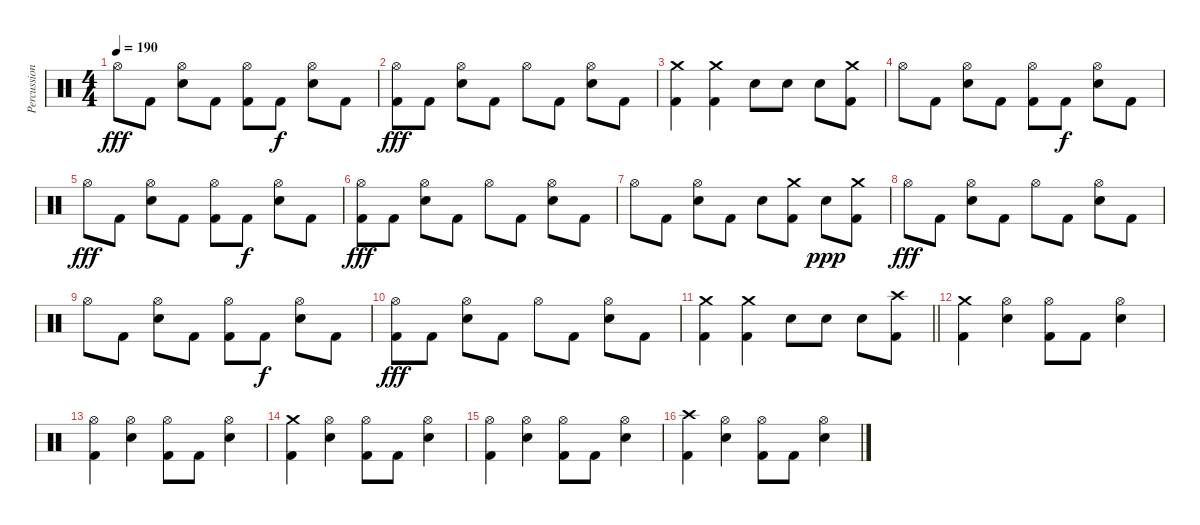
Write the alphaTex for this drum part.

\track ("Percussion" "Percussion") {instrument percussion}
\staff {score}
\articulation defaults
\ts (4 4)
\tempo 190
\clef neutral
\ks c "Hi-Hat (open)".8{dy fff} "Kick (hit) 2".8
("Hi-Hat (open)" "Electric Snare (hit)").8 "Kick (hit) 2".8 ("Hi-Hat (open)" "Kick (hit) 2").8 "Kick (hit) 2".8{dy f} ("Hi-Hat (open)" "Electric Snare (hit)").8 "Kick (hit) 2".8 |
("Hi-Hat (open)" "Kick (hit) 2").8{dy fff} "Kick (hit) 2".8 ("Hi-Hat (open)" "Electric Snare (hit)").8 "Kick (hit) 2".8 "Hi-Hat (open)".8 "Kick (hit) 2".8 ("Hi-Hat (open)" "Electric Snare (hit)").8 "Kick (hit) 2".8 |
("Crash medium (hit)" "Kick (hit) 2").4 ("Crash medium (hit)" "Kick (hit) 2").4 "Electric Snare (hit)".8 "Electric Snare (hit)".8 "Electric Snare (hit)".8 ("Crash medium (hit)" "Kick (hit) 2").8 |
"Hi-Hat (open)".8 "Kick (hit) 2".8 ("Hi-Hat (open)" "Electric Snare (hit)").8 "Kick (hit) 2".8 ("Hi-Hat (open)" "Kick (hit) 2").8 "Kick (hit) 2".8{dy f} ("Hi-Hat (open)" "Electric Snare (hit)").8 "Kick (hit) 2".8 |
"Hi-Hat (open)".8{dy fff} "Kick (hit) 2".8 ("Hi-Hat (open)" "Electric Snare (hit)").8 "Kick (hit) 2".8 ("Hi-Hat (open)" "Kick (hit) 2").8 "Kick (hit) 2".8{dy f} ("Hi-Hat (open)" "Electric Snare (hit)").8 "Kick (hit) 2".8 |
("Hi-Hat (open)" "Kick (hit) 2").8{dy fff} "Kick (hit) 2".8 ("Hi-Hat (open)" "Electric Snare (hit)").8 "Kick (hit) 2".8 "Hi-Hat (open)".8 "Kick (hit) 2".8 ("Hi-Hat (open)" "Electric Snare (hit)").8 "Kick (hit) 2".8 |
"Hi-Hat (open)".8 "Kick (hit) 2".8 ("Hi-Hat (open)" "Electric Snare (hit)").8 "Kick (hit) 2".8 "Electric Snare (hit)".8 ("Crash medium (hit)" "Kick (hit) 2").8 "Electric Snare (hit)".8{dy ppp} ("Crash medium (hit)" "Kick (hit) 2").8 |
"Hi-Hat (open)".8{dy fff} "Kick (hit) 2".8 ("Hi-Hat (open)" "Electric Snare (hit)").8 "Kick (hit) 2".8 "Hi-Hat (open)".8 "Kick (hit) 2".8 ("Hi-Hat (open)" "Electric Snare (hit)").8 "Kick (hit) 2".8 |
"Hi-Hat (open)".8 "Kick (hit) 2".8 ("Hi-Hat (open)" "Electric Snare (hit)").8 "Kick (hit) 2".8 ("Hi-Hat (open)" "Kick (hit) 2").8 "Kick (hit) 2".8{dy f} ("Hi-Hat (open)" "Electric Snare (hit)").8 "Kick (hit) 2".8 |
("Hi-Hat (open)" "Kick (hit) 2").8{dy fff} "Kick (hit) 2".8 ("Hi-Hat (open)" "Electric Snare (hit)").8 "Kick (hit) 2".8 "Hi-Hat (open)".8 "Kick (hit) 2".8 ("Hi-Hat (open)" "Electric Snare (hit)").8 "Kick (hit) 2".8 |
\barLineRight lightlight
("Crash medium (hit)" "Kick (hit) 2").4 ("Crash medium (hit)" "Kick (hit) 2").4 "Electric Snare (hit)".8 "Electric Snare (hit)".8 "Electric Snare (hit)".8 ("Crash high (hit)" "Kick (hit) 2").8 |
("Crash medium (hit)" "Kick (hit) 2").4 ("Hi-Hat (open)" "Electric Snare (hit)").4 ("Hi-Hat (open)" "Kick (hit) 2").8 "Kick (hit) 2".8 ("Hi-Hat (open)" "Electric Snare (hit)").4 |
("Hi-Hat (open)" "Kick (hit) 2").4 ("Hi-Hat (open)" "Electric Snare (hit)").4 ("Hi-Hat (open)" "Kick (hit) 2").8 "Kick (hit) 2".8 ("Hi-Hat (open)" "Electric Snare (hit)").4 |
("Crash medium (hit)" "Kick (hit) 2").4 ("Hi-Hat (open)" "Electric Snare (hit)").4 ("Hi-Hat (open)" "Kick (hit) 2").8 "Kick (hit) 2".8 ("Hi-Hat (open)" "Electric Snare (hit)").4 |
("Hi-Hat (open)" "Kick (hit) 2").4 ("Hi-Hat (open)" "Electric Snare (hit)").4 ("Hi-Hat (open)" "Kick (hit) 2").8 "Kick (hit) 2".8 ("Hi-Hat (open)" "Electric Snare (hit)").4 |
("Crash high (hit)" "Kick (hit) 2").4 ("Hi-Hat (open)" "Electric Snare (hit)").4 ("Hi-Hat (open)" "Kick (hit) 2").8 "Kick (hit) 2".8 ("Hi-Hat (open)" "Electric Snare (hit)").4
